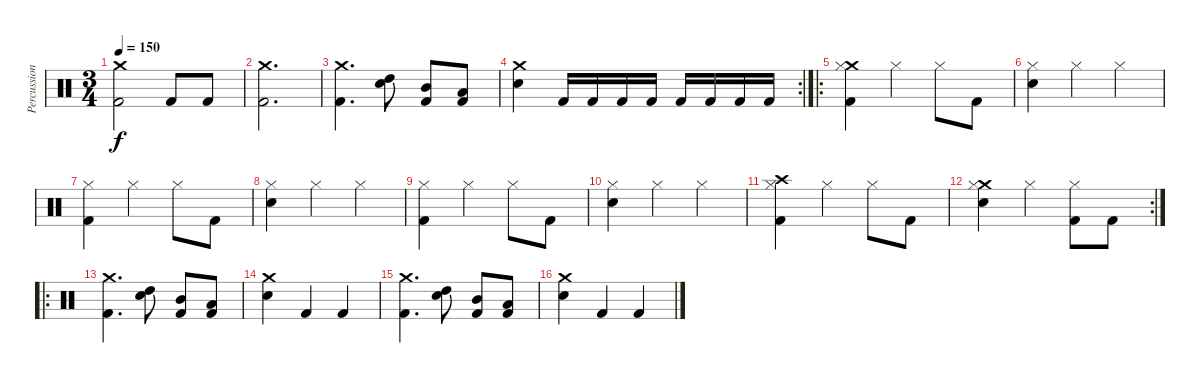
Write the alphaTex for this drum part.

\track ("Percussion" "Percussion") {instrument percussion}
\staff {score}
\articulation defaults
\ts (3 4)
\tempo 150
\clef neutral
\ks c
("Crash medium (hit)" "Kick (hit) 2").2{dy f} "Kick (hit) 2".8 "Kick (hit) 2".8 |
("Crash medium (hit)" "Kick (hit) 2").2{d} |
("Crash medium (hit)" "Kick (hit) 2").4{d} ("High Tom (hit)" "Snare (hit) 2").8 ("Mid Tom (hit)" "Kick (hit) 2").8 ("Low Tom (hit)" "Kick (hit) 2").8 |
\rc 2
("Crash medium (hit)" "Snare (hit) 2").4 "Kick (hit) 2".16 "Kick (hit) 2".16 "Kick (hit) 2".16 "Kick (hit) 2".16 "Kick (hit) 2".16 "Kick (hit) 2".16 "Kick (hit) 2".16 "Kick (hit) 2".16 |
\ro
("Crash medium (hit)" "Hi-Hat (closed)" "Kick (hit) 2").4 "Hi-Hat (closed)".4 "Hi-Hat (closed)".8 "Kick (hit) 2".8 |
("Hi-Hat (closed)" "Snare (hit) 2").4 "Hi-Hat (closed)".4 "Hi-Hat (closed)".4 |
("Hi-Hat (closed)" "Kick (hit) 2").4 "Hi-Hat (closed)".4 "Hi-Hat (closed)".8 "Kick (hit) 2".8 |
("Hi-Hat (closed)" "Snare (hit) 2").4 "Hi-Hat (closed)".4 "Hi-Hat (closed)".4 |
("Hi-Hat (closed)" "Kick (hit) 2").4 "Hi-Hat (closed)".4 "Hi-Hat (closed)".8 "Kick (hit) 2".8 |
("Hi-Hat (closed)" "Snare (hit) 2").4 "Hi-Hat (closed)".4 "Hi-Hat (closed)".4 |
("Crash high (hit)" "Hi-Hat (closed)" "Kick (hit) 2").4 "Hi-Hat (closed)".4 "Hi-Hat (closed)".8 "Kick (hit) 2".8 |
\rc 2
("Crash medium (hit)" "Hi-Hat (closed)" "Snare (hit) 2").4 "Hi-Hat (closed)".4 ("Hi-Hat (closed)" "Kick (hit) 2").8 "Kick (hit) 2".8 |
\ro
("Crash medium (hit)" "Kick (hit) 2").4{d} ("High Tom (hit)" "Snare (hit) 2").8 ("Mid Tom (hit)" "Kick (hit) 2").8 ("Low Tom (hit)" "Kick (hit) 2").8 |
("Crash medium (hit)" "Snare (hit) 2").4 "Kick (hit) 2".4 "Kick (hit) 2".4 |
("Crash medium (hit)" "Kick (hit) 2").4{d} ("High Tom (hit)" "Snare (hit) 2").8 ("Mid Tom (hit)" "Kick (hit) 2").8 ("Low Tom (hit)" "Kick (hit) 2").8 |
("Crash medium (hit)" "Snare (hit) 2").4 "Kick (hit) 2".4 "Kick (hit) 2".4
